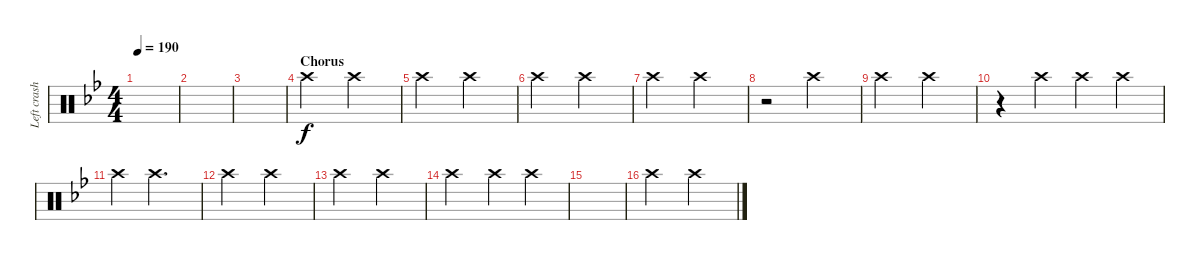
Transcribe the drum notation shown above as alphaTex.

\track ("Left crash" "Left crash") {instrument percussion}
\staff {score}
\articulation defaults
\ts (4 4)
\tempo 190
\clef neutral
\ks bb
|
|
|
\section ("" "Chorus")
"Crash high (hit)".2 "Crash high (hit)".2 |
"Crash high (hit)".2 "Crash high (hit)".2 |
"Crash high (hit)".2 "Crash high (hit)".2 |
"Crash high (hit)".2 "Crash high (hit)".2 |
r.2 "Crash high (hit)".2 |
"Crash high (hit)".2 "Crash high (hit)".2 |
r.4 "Crash high (hit)".4 "Crash high (hit)".4 "Crash high (hit)".4 |
"Crash high (hit)".4 "Crash high (hit)".2{d} |
"Crash high (hit)".2 "Crash high (hit)".2 |
"Crash high (hit)".2 "Crash high (hit)".2 |
"Crash high (hit)".2 "Crash high (hit)".4 "Crash high (hit)".4 |
|
"Crash high (hit)".2 "Crash high (hit)".2
